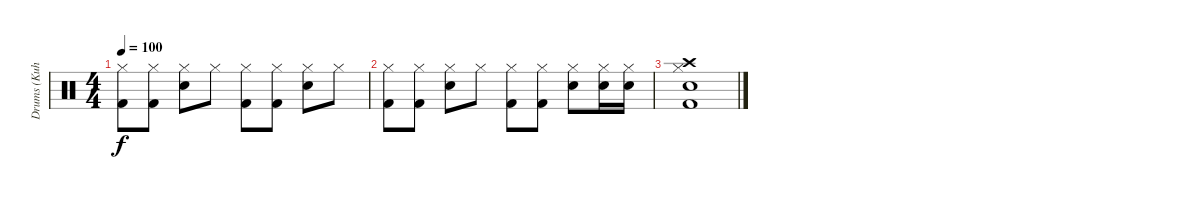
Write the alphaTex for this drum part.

\track ("Drums (Kuhara)" "Drums (Kuh") {instrument percussion}
\staff {score}
\articulation defaults
\ts (4 4)
\tempo 100
\clef neutral
\ks c
("Hi-Hat (closed)" "Kick (hit) 2").8{dy f} ("Hi-Hat (closed)" "Kick (hit) 2").8 ("Hi-Hat (closed)" "Electric Snare (hit)").8 "Hi-Hat (closed)".8 ("Hi-Hat (closed)" "Kick (hit) 2").8 ("Hi-Hat (closed)" "Kick (hit) 2").8 ("Hi-Hat (closed)" "Electric Snare (hit)").8 "Hi-Hat (closed)".8 |
("Hi-Hat (closed)" "Kick (hit) 2").8 ("Hi-Hat (closed)" "Kick (hit) 2").8 ("Hi-Hat (closed)" "Electric Snare (hit)").8 "Hi-Hat (closed)".8 ("Hi-Hat (closed)" "Kick (hit) 2").8 ("Hi-Hat (closed)" "Kick (hit) 2").8 ("Hi-Hat (closed)" "Electric Snare (hit)").8 ("Hi-Hat (closed)" "Electric Snare (hit)").16 ("Hi-Hat (closed)" "Electric Snare (hit)").16 |
("Hi-Hat (closed)" "Electric Snare (hit)" "Crash high (hit)" "Kick (hit) 2").1
